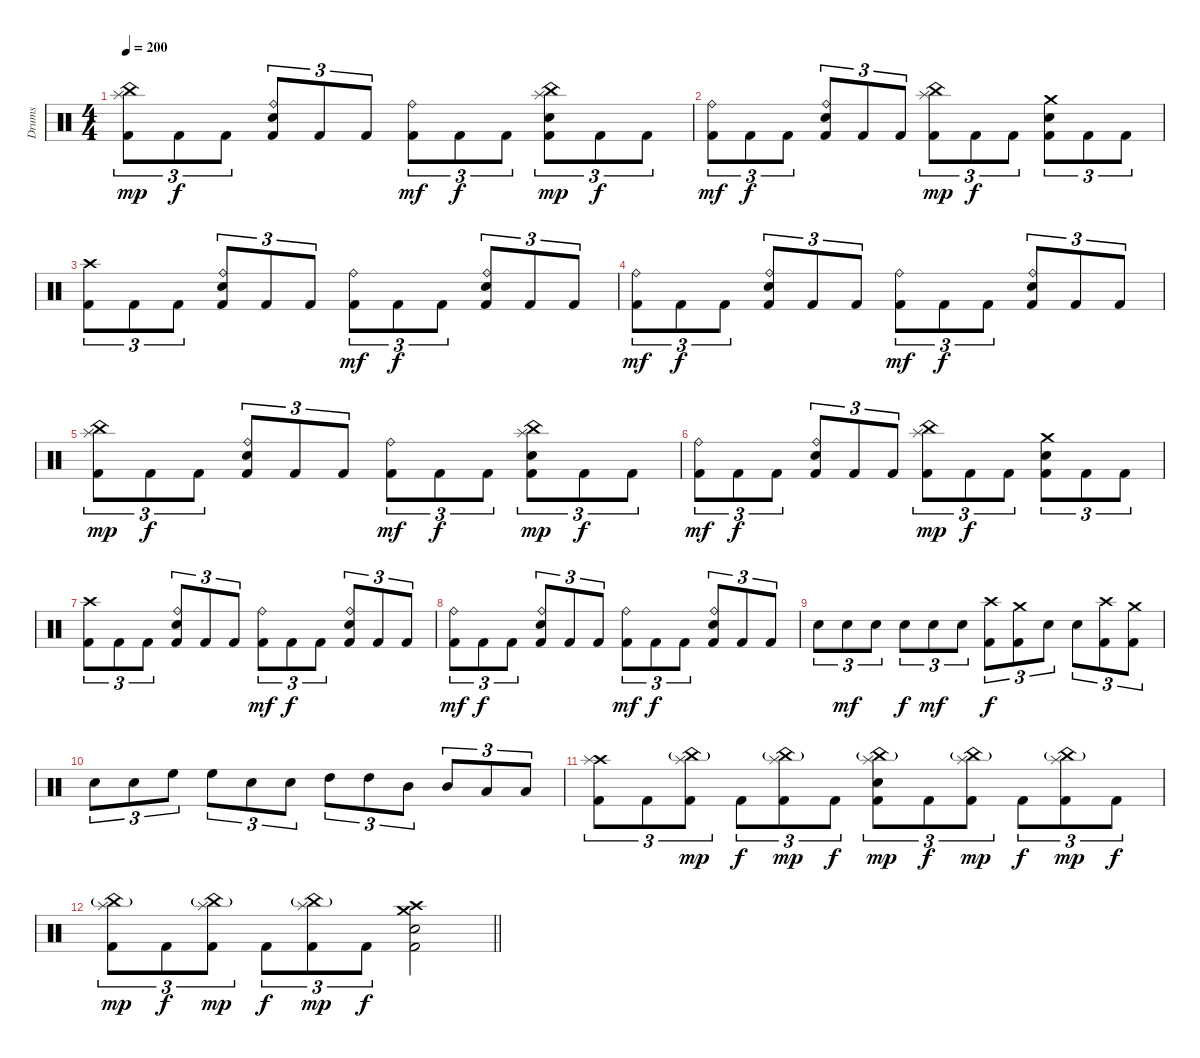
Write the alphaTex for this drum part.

\track ("Drums" "Drums") {instrument percussion}
\staff {score}
\articulation defaults
\ts (4 4)
\tempo 200
\clef neutral
\ks c
("China (hit)" "Splash (hit)" "Kick (hit) 2").8{tu (3 2) dy mp} "Kick (hit) 2".8{tu (3 2) dy f} "Kick (hit) 2".8{tu (3 2)} ("Ride (bell)" "Electric Snare (hit)" "Kick (hit) 2").8{tu (3 2)} "Kick (hit) 2".8{tu (3 2)} "Kick (hit) 2".8{tu (3 2)} ("Ride (bell)" "Kick (hit) 2").8{tu (3 2) dy mf} "Kick (hit) 2".8{tu (3 2) dy f} "Kick (hit) 2".8{tu (3 2)} ("China (hit)" "Splash (hit)" "Electric Snare (hit)" "Kick (hit) 2").8{tu (3 2) dy mp} "Kick (hit) 2".8{tu (3 2) dy f} "Kick (hit) 2".8{tu (3 2)} |
("Ride (bell)" "Kick (hit) 2").8{tu (3 2) dy mf} "Kick (hit) 2".8{tu (3 2) dy f} "Kick (hit) 2".8{tu (3 2)} ("Ride (bell)" "Electric Snare (hit)" "Kick (hit) 2").8{tu (3 2)} "Kick (hit) 2".8{tu (3 2)} "Kick (hit) 2".8{tu (3 2)} ("China (hit)" "Splash (hit)" "Kick (hit) 2").8{tu (3 2) dy mp} "Kick (hit) 2".8{tu (3 2) dy f} "Kick (hit) 2".8{tu (3 2)} ("Crash medium (hit)" "Electric Snare (hit)" "Kick (hit) 2").8{tu (3 2)} "Kick (hit) 2".8{tu (3 2)} "Kick (hit) 2".8{tu (3 2)} |
("Crash high (hit)" "Kick (hit) 2").8{tu (3 2)} "Kick (hit) 2".8{tu (3 2)} "Kick (hit) 2".8{tu (3 2)} ("Ride (bell)" "Electric Snare (hit)" "Kick (hit) 2").8{tu (3 2)} "Kick (hit) 2".8{tu (3 2)} "Kick (hit) 2".8{tu (3 2)} ("Ride (bell)" "Kick (hit) 2").8{tu (3 2) dy mf} "Kick (hit) 2".8{tu (3 2) dy f} "Kick (hit) 2".8{tu (3 2)} ("Ride (bell)" "Electric Snare (hit)" "Kick (hit) 2").8{tu (3 2)} "Kick (hit) 2".8{tu (3 2)} "Kick (hit) 2".8{tu (3 2)} |
("Ride (bell)" "Kick (hit) 2").8{tu (3 2) dy mf} "Kick (hit) 2".8{tu (3 2) dy f} "Kick (hit) 2".8{tu (3 2)} ("Ride (bell)" "Electric Snare (hit)" "Kick (hit) 2").8{tu (3 2)} "Kick (hit) 2".8{tu (3 2)} "Kick (hit) 2".8{tu (3 2)} ("Ride (bell)" "Kick (hit) 2").8{tu (3 2) dy mf} "Kick (hit) 2".8{tu (3 2) dy f} "Kick (hit) 2".8{tu (3 2)} ("Ride (bell)" "Electric Snare (hit)" "Kick (hit) 2").8{tu (3 2)} "Kick (hit) 2".8{tu (3 2)} "Kick (hit) 2".8{tu (3 2)} |
("China (hit)" "Splash (hit)" "Kick (hit) 2").8{tu (3 2) dy mp} "Kick (hit) 2".8{tu (3 2) dy f} "Kick (hit) 2".8{tu (3 2)} ("Ride (bell)" "Electric Snare (hit)" "Kick (hit) 2").8{tu (3 2)} "Kick (hit) 2".8{tu (3 2)} "Kick (hit) 2".8{tu (3 2)} ("Ride (bell)" "Kick (hit) 2").8{tu (3 2) dy mf} "Kick (hit) 2".8{tu (3 2) dy f} "Kick (hit) 2".8{tu (3 2)} ("China (hit)" "Splash (hit)" "Electric Snare (hit)" "Kick (hit) 2").8{tu (3 2) dy mp} "Kick (hit) 2".8{tu (3 2) dy f} "Kick (hit) 2".8{tu (3 2)} |
("Ride (bell)" "Kick (hit) 2").8{tu (3 2) dy mf} "Kick (hit) 2".8{tu (3 2) dy f} "Kick (hit) 2".8{tu (3 2)} ("Ride (bell)" "Electric Snare (hit)" "Kick (hit) 2").8{tu (3 2)} "Kick (hit) 2".8{tu (3 2)} "Kick (hit) 2".8{tu (3 2)} ("China (hit)" "Splash (hit)" "Kick (hit) 2").8{tu (3 2) dy mp} "Kick (hit) 2".8{tu (3 2) dy f} "Kick (hit) 2".8{tu (3 2)} ("Crash medium (hit)" "Electric Snare (hit)" "Kick (hit) 2").8{tu (3 2)} "Kick (hit) 2".8{tu (3 2)} "Kick (hit) 2".8{tu (3 2)} |
("Crash high (hit)" "Kick (hit) 2").8{tu (3 2)} "Kick (hit) 2".8{tu (3 2)} "Kick (hit) 2".8{tu (3 2)} ("Ride (bell)" "Electric Snare (hit)" "Kick (hit) 2").8{tu (3 2)} "Kick (hit) 2".8{tu (3 2)} "Kick (hit) 2".8{tu (3 2)} ("Ride (bell)" "Kick (hit) 2").8{tu (3 2) dy mf} "Kick (hit) 2".8{tu (3 2) dy f} "Kick (hit) 2".8{tu (3 2)} ("Ride (bell)" "Electric Snare (hit)" "Kick (hit) 2").8{tu (3 2)} "Kick (hit) 2".8{tu (3 2)} "Kick (hit) 2".8{tu (3 2)} |
("Ride (bell)" "Kick (hit) 2").8{tu (3 2) dy mf} "Kick (hit) 2".8{tu (3 2) dy f} "Kick (hit) 2".8{tu (3 2)} ("Ride (bell)" "Electric Snare (hit)" "Kick (hit) 2").8{tu (3 2)} "Kick (hit) 2".8{tu (3 2)} "Kick (hit) 2".8{tu (3 2)} ("Ride (bell)" "Kick (hit) 2").8{tu (3 2) dy mf} "Kick (hit) 2".8{tu (3 2) dy f} "Kick (hit) 2".8{tu (3 2)} ("Ride (bell)" "Electric Snare (hit)" "Kick (hit) 2").8{tu (3 2)} "Kick (hit) 2".8{tu (3 2)} "Kick (hit) 2".8{tu (3 2)} |
"Electric Snare (hit)".8{tu (3 2)} "Electric Snare (hit)".8{tu (3 2) dy mf} "Electric Snare (hit)".8{tu (3 2)} "Electric Snare (hit)".8{tu (3 2) dy f} "Electric Snare (hit)".8{tu (3 2) dy mf} "Electric Snare (hit)".8{tu (3 2)} ("Crash high (hit)" "Kick (hit) 2").8{tu (3 2) dy f} ("Crash medium (hit)" "Kick (hit) 2").8{tu (3 2)} "Electric Snare (hit)".8{tu (3 2)} "Electric Snare (hit)".8{tu (3 2)} ("Crash high (hit)" "Kick (hit) 2").8{tu (3 2)} ("Crash medium (hit)" "Kick (hit) 2").8{tu (3 2)} |
"Electric Snare (hit)".8{tu (3 2)} "Electric Snare (hit)".8{tu (3 2)} "High Floor Tom (hit)".8{tu (3 2)} "High Floor Tom (hit)".8{tu (3 2)} "Electric Snare (hit)".8{tu (3 2)} "Electric Snare (hit)".8{tu (3 2)} "High Tom (hit)".8{tu (3 2)} "High Tom (hit)".8{tu (3 2)} "Mid Tom (hit)".8{tu (3 2)} "Mid Tom (hit)".8{tu (3 2)} "Low Tom (hit)".8{tu (3 2)} "Low Tom (hit)".8{tu (3 2)} |
("Crash high (hit)" "Splash (hit)" "Kick (hit) 2").8{tu (3 2)} "Kick (hit) 2".8{tu (3 2)} ("China (hit)"{g} "Splash (hit)" "Kick (hit) 2").8{tu (3 2) dy mp} "Kick (hit) 2".8{tu (3 2) dy f} ("China (hit)"{g} "Splash (hit)" "Kick (hit) 2").8{tu (3 2) dy mp} "Kick (hit) 2".8{tu (3 2) dy f} ("China (hit)"{g} "Splash (hit)" "Electric Snare (hit)" "Kick (hit) 2").8{tu (3 2) dy mp} "Kick (hit) 2".8{tu (3 2) dy f} ("China (hit)"{g} "Splash (hit)" "Kick (hit) 2").8{tu (3 2) dy mp} "Kick (hit) 2".8{tu (3 2) dy f} ("China (hit)"{g} "Splash (hit)" "Kick (hit) 2").8{tu (3 2) dy mp} "Kick (hit) 2".8{tu (3 2) dy f} |
\barLineRight lightlight
("China (hit)"{g} "Splash (hit)" "Kick (hit) 2").8{tu (3 2) dy mp} "Kick (hit) 2".8{tu (3 2) dy f} ("China (hit)"{g} "Splash (hit)" "Kick (hit) 2").8{tu (3 2) dy mp} "Kick (hit) 2".8{tu (3 2) dy f} ("China (hit)"{g} "Splash (hit)" "Kick (hit) 2").8{tu (3 2) dy mp} "Kick (hit) 2".8{tu (3 2) dy f} ("Crash high (hit)" "Crash medium (hit)" "Electric Snare (hit)" "Kick (hit) 2").2
